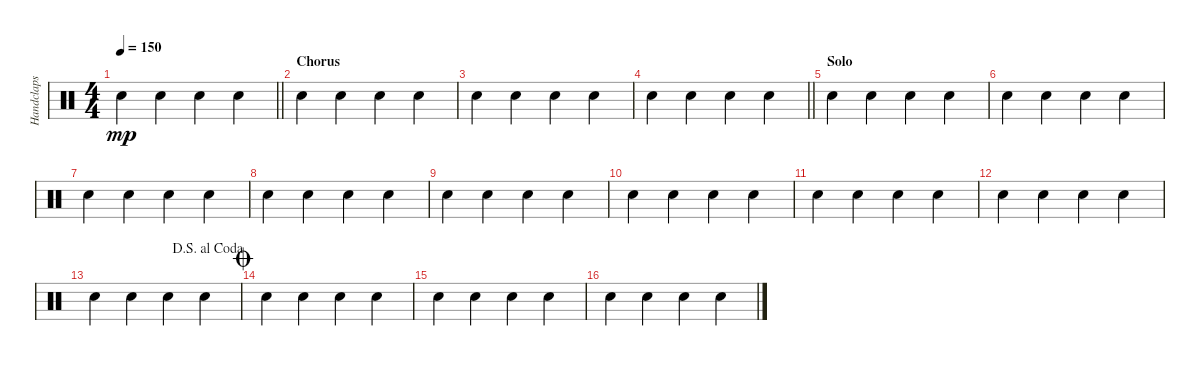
\track ("Handclaps" "Handclaps") {instrument percussion}
\staff {score}
\articulation defaults
\ts (4 4)
\tempo 150
\clef neutral
\barLineRight lightlight
\ks c "Hand Clap (hit)".4{dy mp} "Hand Clap (hit)".4 "Hand Clap (hit)".4 "Hand Clap (hit)".4
|
\section ("" "Chorus")
"Hand Clap (hit)".4 "Hand Clap (hit)".4 "Hand Clap (hit)".4 "Hand Clap (hit)".4 |
"Hand Clap (hit)".4 "Hand Clap (hit)".4 "Hand Clap (hit)".4 "Hand Clap (hit)".4 |
\barLineRight lightlight "Hand Clap (hit)".4 "Hand Clap (hit)".4 "Hand Clap (hit)".4 "Hand Clap (hit)".4
|
\section ("" "Solo")
"Hand Clap (hit)".4 "Hand Clap (hit)".4 "Hand Clap (hit)".4 "Hand Clap (hit)".4 |
"Hand Clap (hit)".4 "Hand Clap (hit)".4 "Hand Clap (hit)".4 "Hand Clap (hit)".4 |
"Hand Clap (hit)".4 "Hand Clap (hit)".4 "Hand Clap (hit)".4 "Hand Clap (hit)".4 |
"Hand Clap (hit)".4 "Hand Clap (hit)".4 "Hand Clap (hit)".4 "Hand Clap (hit)".4 |
"Hand Clap (hit)".4 "Hand Clap (hit)".4 "Hand Clap (hit)".4 "Hand Clap (hit)".4 |
"Hand Clap (hit)".4 "Hand Clap (hit)".4 "Hand Clap (hit)".4 "Hand Clap (hit)".4 |
"Hand Clap (hit)".4 "Hand Clap (hit)".4 "Hand Clap (hit)".4 "Hand Clap (hit)".4 |
"Hand Clap (hit)".4 "Hand Clap (hit)".4 "Hand Clap (hit)".4 "Hand Clap (hit)".4 |
\jump dalsegnoalcoda "Hand Clap (hit)".4 "Hand Clap (hit)".4 "Hand Clap (hit)".4 "Hand Clap (hit)".4
|
\jump coda "Hand Clap (hit)".4 "Hand Clap (hit)".4 "Hand Clap (hit)".4 "Hand Clap (hit)".4
|
"Hand Clap (hit)".4 "Hand Clap (hit)".4 "Hand Clap (hit)".4 "Hand Clap (hit)".4 |
"Hand Clap (hit)".4 "Hand Clap (hit)".4 "Hand Clap (hit)".4 "Hand Clap (hit)".4
